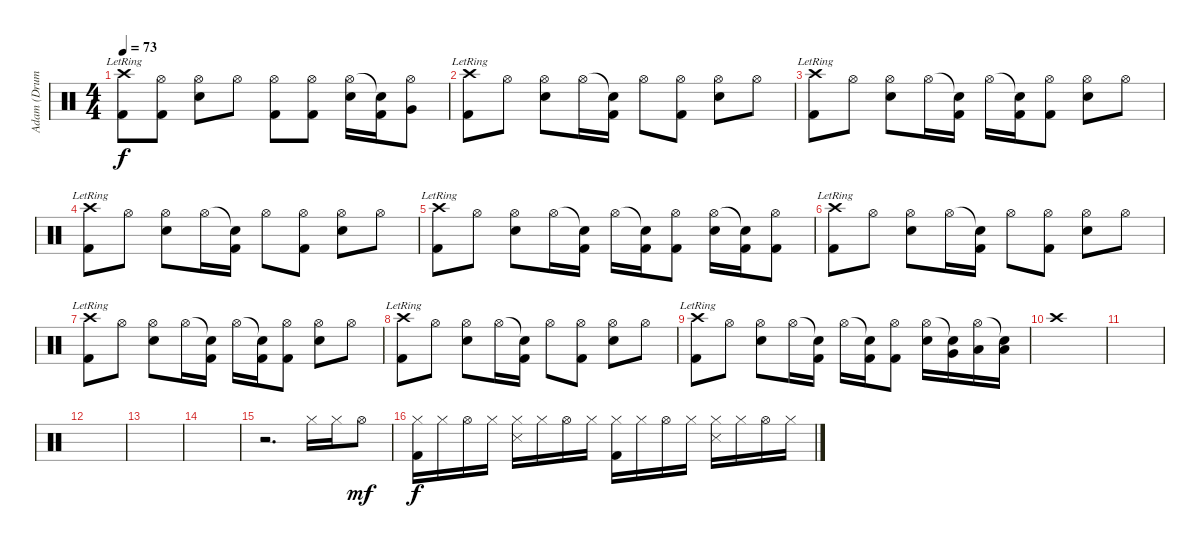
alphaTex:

\track ("Adam (Drums)" "Adam (Drum") {instrument percussion}
\staff {score}
\articulation defaults
\ts (4 4)
\tempo 73
\clef neutral
\ks c
("Crash high (hit)"{lr} "Kick (hit) 2").8{dy f} ("Hi-Hat (open)" "Kick (hit) 2").8 ("Hi-Hat (open)" "Electric Snare (hit)").8 "Hi-Hat (open)".8 ("Hi-Hat (open)" "Kick (hit) 2").8 ("Hi-Hat (open)" "Kick (hit) 2").8 ("Hi-Hat (open)" "Electric Snare (hit)").16 ("Snare (hit)"{t} "Kick (hit) 2").16 ("Hi-Hat (open)" "Very Low Tom (hit)").8 |
("Crash high (hit)"{lr} "Kick (hit) 2").8 "Hi-Hat (open)".8 ("Hi-Hat (open)" "Electric Snare (hit)").8 "Hi-Hat (open)".16 ("Snare (hit)"{t} "Kick (hit) 2").16 "Hi-Hat (open)".8 ("Hi-Hat (open)" "Kick (hit) 2").8 ("Hi-Hat (open)" "Electric Snare (hit)").8 "Hi-Hat (open)".8 |
("Crash high (hit)"{lr} "Kick (hit) 2").8 "Hi-Hat (open)".8 ("Hi-Hat (open)" "Electric Snare (hit)").8 "Hi-Hat (open)".16 ("Snare (hit)"{t} "Kick (hit) 2").16 "Hi-Hat (open)".16 ("Snare (hit)"{t} "Kick (hit) 2").16 ("Hi-Hat (open)" "Kick (hit) 2").8 ("Hi-Hat (open)" "Electric Snare (hit)").8 "Hi-Hat (open)".8 |
("Crash high (hit)"{lr} "Kick (hit) 2").8 "Hi-Hat (open)".8 ("Hi-Hat (open)" "Electric Snare (hit)").8 "Hi-Hat (open)".16 ("Snare (hit)"{t} "Kick (hit) 2").16 "Hi-Hat (open)".8 ("Hi-Hat (open)" "Kick (hit) 2").8 ("Hi-Hat (open)" "Electric Snare (hit)").8 "Hi-Hat (open)".8 |
("Crash high (hit)"{lr} "Kick (hit) 2").8 "Hi-Hat (open)".8 ("Hi-Hat (open)" "Electric Snare (hit)").8 "Hi-Hat (open)".16 ("Snare (hit)"{t} "Kick (hit) 2").16 "Hi-Hat (open)".16 ("Snare (hit)"{t} "Kick (hit) 2").16 ("Hi-Hat (open)" "Kick (hit) 2").8 ("Hi-Hat (open)" "Electric Snare (hit)").16 ("Snare (hit)"{t} "Kick (hit) 2").16 ("Hi-Hat (open)" "Kick (hit) 2").8 |
("Crash high (hit)"{lr} "Kick (hit) 2").8 "Hi-Hat (open)".8 ("Hi-Hat (open)" "Electric Snare (hit)").8 "Hi-Hat (open)".16 ("Snare (hit)"{t} "Kick (hit) 2").16 "Hi-Hat (open)".8 ("Hi-Hat (open)" "Kick (hit) 2").8 ("Hi-Hat (open)" "Electric Snare (hit)").8 "Hi-Hat (open)".8 |
("Crash high (hit)"{lr} "Kick (hit) 2").8 "Hi-Hat (open)".8 ("Hi-Hat (open)" "Electric Snare (hit)").8 "Hi-Hat (open)".16 ("Snare (hit)"{t} "Kick (hit) 2").16 "Hi-Hat (open)".16 ("Snare (hit)"{t} "Kick (hit) 2").16 ("Hi-Hat (open)" "Kick (hit) 2").8 ("Hi-Hat (open)" "Electric Snare (hit)").8 "Hi-Hat (open)".8 |
("Crash high (hit)"{lr} "Kick (hit) 2").8 "Hi-Hat (open)".8 ("Hi-Hat (open)" "Electric Snare (hit)").8 "Hi-Hat (open)".16 ("Snare (hit)"{t} "Kick (hit) 2").16 "Hi-Hat (open)".8 ("Hi-Hat (open)" "Kick (hit) 2").8 ("Hi-Hat (open)" "Electric Snare (hit)").8 "Hi-Hat (open)".8 |
("Crash high (hit)"{lr} "Kick (hit) 2").8 "Hi-Hat (open)".8 ("Hi-Hat (open)" "Electric Snare (hit)").8 "Hi-Hat (open)".16 ("Snare (hit)"{t} "Kick (hit) 2").16 "Hi-Hat (open)".16 ("Snare (hit)"{t} "Kick (hit) 2").16 ("Hi-Hat (open)" "Kick (hit) 2").8 ("Hi-Hat (open)" "Electric Snare (hit)").16 ("Snare (hit)"{t} "Very Low Tom (hit)").16 ("Hi-Hat (open)" "Low Floor Tom (hit)").16 ("Snare (hit)"{t} "Low Floor Tom (hit)").16 |
"Crash high (hit)".1 |
|
|
|
|
r.2{d} "Hi-Hat (closed)".16 "Hi-Hat (closed)".16 "Hi-Hat (open)".8{dy mf} |
("Hi-Hat (closed)" "Kick (hit) 2").16{dy f} "Hi-Hat (closed)".16 "Hi-Hat (open)".16 "Hi-Hat (closed)".16 ("Hi-Hat (closed)" "Snare (side stick) 3").16 "Hi-Hat (closed)".16 "Hi-Hat (open)".16 "Hi-Hat (closed)".16 ("Hi-Hat (closed)" "Kick (hit) 2").16 "Hi-Hat (closed)".16 "Hi-Hat (open)".16 "Hi-Hat (closed)".16 ("Hi-Hat (closed)" "Snare (side stick) 3").16 "Hi-Hat (closed)".16 "Hi-Hat (open)".16 "Hi-Hat (closed)".16
